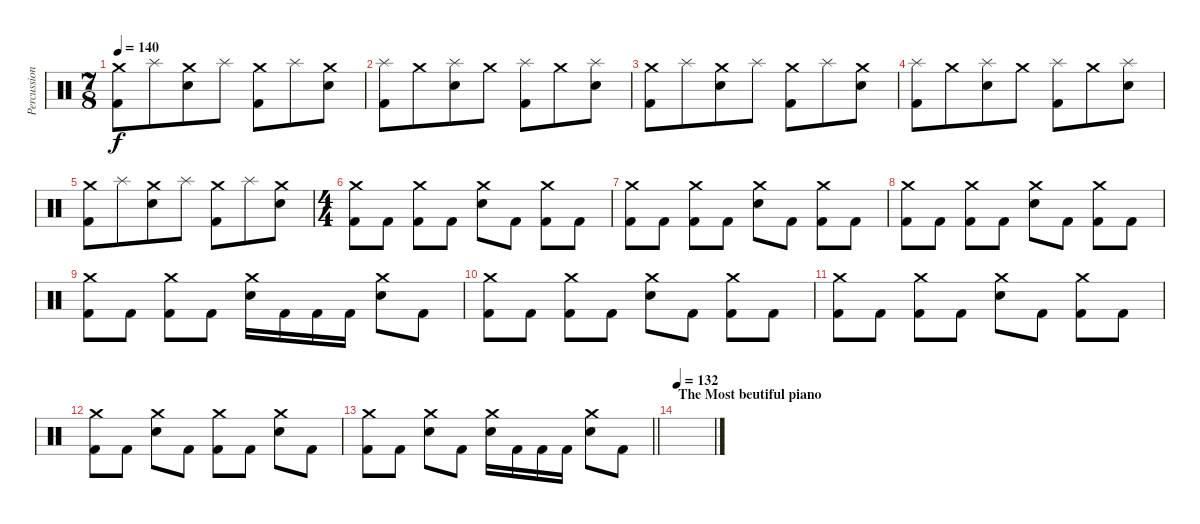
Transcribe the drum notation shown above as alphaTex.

\track ("Percussion" "Percussion") {instrument percussion}
\staff {score}
\articulation defaults
\ts (7 8)
\tempo 140
\clef neutral
\ks c
("Crash medium (hit)" "Kick (hit) 2").8{dy f} "Splash (hit)".8 ("Crash medium (hit)" "Electric Snare (hit)").8 "Splash (hit)".8 ("Crash medium (hit)" "Kick (hit) 2").8 "Splash (hit)".8 ("Crash medium (hit)" "Electric Snare (hit)").8 |
("Splash (hit)" "Kick (hit) 2").8 "Crash medium (hit)".8 ("Splash (hit)" "Electric Snare (hit)").8 "Crash medium (hit)".8 ("Splash (hit)" "Kick (hit) 2").8 "Crash medium (hit)".8 ("Splash (hit)" "Electric Snare (hit)").8 |
("Crash medium (hit)" "Kick (hit) 2").8 "Splash (hit)".8 ("Crash medium (hit)" "Electric Snare (hit)").8 "Splash (hit)".8 ("Crash medium (hit)" "Kick (hit) 2").8 "Splash (hit)".8 ("Crash medium (hit)" "Electric Snare (hit)").8 |
("Splash (hit)" "Kick (hit) 2").8 "Crash medium (hit)".8 ("Splash (hit)" "Electric Snare (hit)").8 "Crash medium (hit)".8 ("Splash (hit)" "Kick (hit) 2").8 "Crash medium (hit)".8 ("Splash (hit)" "Electric Snare (hit)").8 |
("Crash medium (hit)" "Kick (hit) 2").8 "Splash (hit)".8 ("Crash medium (hit)" "Electric Snare (hit)").8 "Splash (hit)".8 ("Crash medium (hit)" "Kick (hit) 2").8 "Splash (hit)".8 ("Crash medium (hit)" "Electric Snare (hit)").8 |
\ts (4 4)
("Crash medium (hit)" "Kick (hit) 2").8 "Kick (hit) 2".8 ("Crash medium (hit)" "Kick (hit) 2").8 "Kick (hit) 2".8 ("Crash medium (hit)" "Electric Snare (hit)").8 "Kick (hit) 2".8 ("Crash medium (hit)" "Kick (hit) 2").8 "Kick (hit) 2".8 |
("Crash medium (hit)" "Kick (hit) 2").8 "Kick (hit) 2".8 ("Crash medium (hit)" "Kick (hit) 2").8 "Kick (hit) 2".8 ("Crash medium (hit)" "Electric Snare (hit)").8 "Kick (hit) 2".8 ("Crash medium (hit)" "Kick (hit) 2").8 "Kick (hit) 2".8 |
("Crash medium (hit)" "Kick (hit) 2").8 "Kick (hit) 2".8 ("Crash medium (hit)" "Kick (hit) 2").8 "Kick (hit) 2".8 ("Crash medium (hit)" "Electric Snare (hit)").8 "Kick (hit) 2".8 ("Crash medium (hit)" "Kick (hit) 2").8 "Kick (hit) 2".8 |
("Crash medium (hit)" "Kick (hit) 2").8 "Kick (hit) 2".8 ("Crash medium (hit)" "Kick (hit) 2").8 "Kick (hit) 2".8 ("Crash medium (hit)" "Electric Snare (hit)").16 "Kick (hit) 2".16 "Kick (hit) 2".16 "Kick (hit) 2".16 ("Crash medium (hit)" "Electric Snare (hit)").8 "Kick (hit) 2".8 |
("Crash medium (hit)" "Kick (hit) 2").8 "Kick (hit) 2".8 ("Crash medium (hit)" "Kick (hit) 2").8 "Kick (hit) 2".8 ("Crash medium (hit)" "Electric Snare (hit)").8 "Kick (hit) 2".8 ("Crash medium (hit)" "Kick (hit) 2").8 "Kick (hit) 2".8 |
("Crash medium (hit)" "Kick (hit) 2").8 "Kick (hit) 2".8 ("Crash medium (hit)" "Kick (hit) 2").8 "Kick (hit) 2".8 ("Crash medium (hit)" "Electric Snare (hit)").8 "Kick (hit) 2".8 ("Crash medium (hit)" "Kick (hit) 2").8 "Kick (hit) 2".8 |
("Crash medium (hit)" "Kick (hit) 2").8 "Kick (hit) 2".8 ("Crash medium (hit)" "Electric Snare (hit)").8 "Kick (hit) 2".8 ("Crash medium (hit)" "Kick (hit) 2").8 "Kick (hit) 2".8 ("Crash medium (hit)" "Electric Snare (hit)").8 "Kick (hit) 2".8 |
\barLineRight lightlight
("Crash medium (hit)" "Kick (hit) 2").8 "Kick (hit) 2".8 ("Crash medium (hit)" "Electric Snare (hit)").8 "Kick (hit) 2".8 ("Crash medium (hit)" "Electric Snare (hit)").16 "Kick (hit) 2".16 "Kick (hit) 2".16 "Kick (hit) 2".16 ("Crash medium (hit)" "Electric Snare (hit)").8 "Kick (hit) 2".8 |
\section ("" "The Most beutiful piano")
\tempo 132
